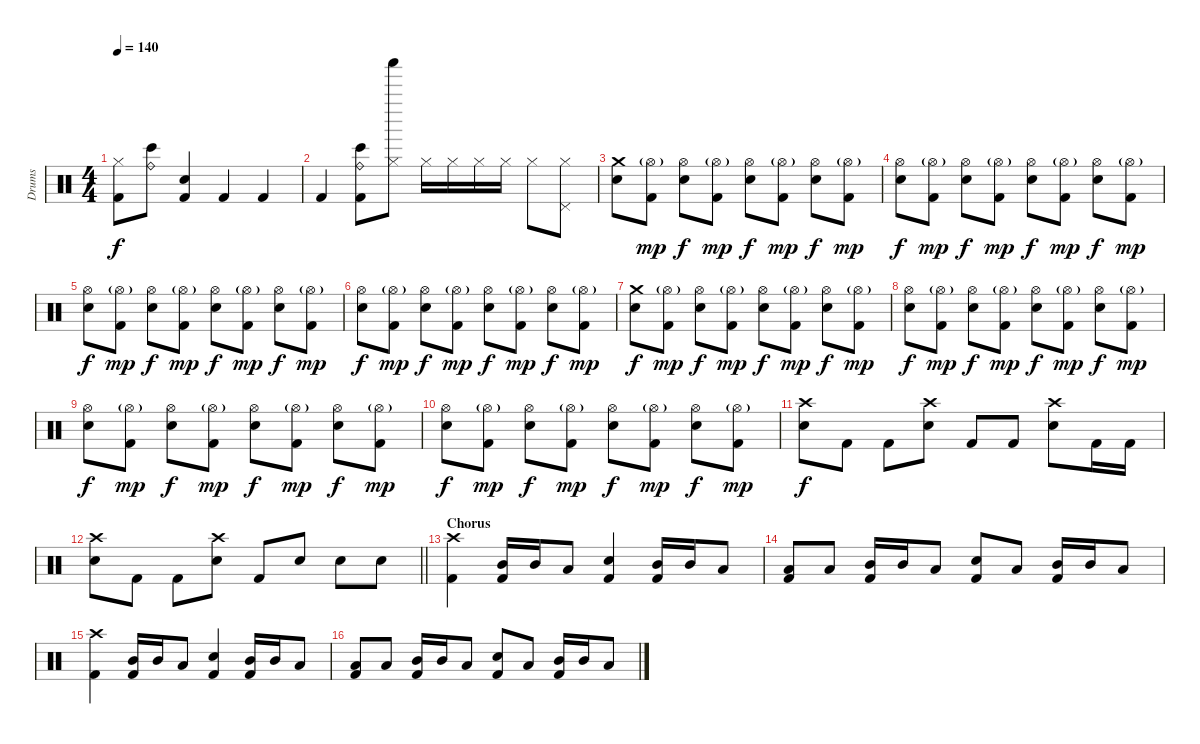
\track ("Drums" "Drums") {instrument percussion}
\staff {score}
\articulation defaults
\ts (4 4)
\tempo 140
\clef neutral
\ks c
("Hi-Hat (closed)" "Kick (hit) 2").8{dy f} ("Ride (bell)" "Bongo High (hit)").8 ("Snare (hit) 2" "Kick (hit) 2").4 "Kick (hit) 2".4 "Kick (hit) 2".4 |
"Kick (hit) 2".4 ("Ride (bell)" "Bongo High (hit)" "Kick (hit) 2").8 ("Shaker (hit)" "Hi-Hat (closed)").8 "Hi-Hat (closed)".16 "Hi-Hat (closed)".16 "Hi-Hat (closed)".16 "Hi-Hat (closed)".16 "Hi-Hat (closed)".8 ("Hi-Hat (closed)" "Pedal Hi-Hat (hit)").8 |
("Crash medium (hit)" "Snare (hit) 2").8 ("Hi-Hat (open)"{g} "Kick (hit) 2").8{dy mp} ("Hi-Hat (open)" "Snare (hit) 2").8{dy f} ("Hi-Hat (open)"{g} "Kick (hit) 2").8{dy mp} ("Hi-Hat (open)" "Snare (hit) 2").8{dy f} ("Hi-Hat (open)"{g} "Kick (hit) 2").8{dy mp} ("Hi-Hat (open)" "Snare (hit) 2").8{dy f} ("Hi-Hat (open)"{g} "Kick (hit) 2").8{dy mp} |
("Hi-Hat (open)" "Snare (hit) 2").8{dy f} ("Hi-Hat (open)"{g} "Kick (hit) 2").8{dy mp} ("Hi-Hat (open)" "Snare (hit) 2").8{dy f} ("Hi-Hat (open)"{g} "Kick (hit) 2").8{dy mp} ("Hi-Hat (open)" "Snare (hit) 2").8{dy f} ("Hi-Hat (open)"{g} "Kick (hit) 2").8{dy mp} ("Hi-Hat (open)" "Snare (hit) 2").8{dy f} ("Hi-Hat (open)"{g} "Kick (hit) 2").8{dy mp} |
("Hi-Hat (open)" "Snare (hit) 2").8{dy f} ("Hi-Hat (open)"{g} "Kick (hit) 2").8{dy mp} ("Hi-Hat (open)" "Snare (hit) 2").8{dy f} ("Hi-Hat (open)"{g} "Kick (hit) 2").8{dy mp} ("Hi-Hat (open)" "Snare (hit) 2").8{dy f} ("Hi-Hat (open)"{g} "Kick (hit) 2").8{dy mp} ("Hi-Hat (open)" "Snare (hit) 2").8{dy f} ("Hi-Hat (open)"{g} "Kick (hit) 2").8{dy mp} |
("Hi-Hat (open)" "Snare (hit) 2").8{dy f} ("Hi-Hat (open)"{g} "Kick (hit) 2").8{dy mp} ("Hi-Hat (open)" "Snare (hit) 2").8{dy f} ("Hi-Hat (open)"{g} "Kick (hit) 2").8{dy mp} ("Hi-Hat (open)" "Snare (hit) 2").8{dy f} ("Hi-Hat (open)"{g} "Kick (hit) 2").8{dy mp} ("Hi-Hat (open)" "Snare (hit) 2").8{dy f} ("Hi-Hat (open)"{g} "Kick (hit) 2").8{dy mp} |
("Crash medium (hit)" "Snare (hit) 2").8{dy f} ("Hi-Hat (open)"{g} "Kick (hit) 2").8{dy mp} ("Hi-Hat (open)" "Snare (hit) 2").8{dy f} ("Hi-Hat (open)"{g} "Kick (hit) 2").8{dy mp} ("Hi-Hat (open)" "Snare (hit) 2").8{dy f} ("Hi-Hat (open)"{g} "Kick (hit) 2").8{dy mp} ("Hi-Hat (open)" "Snare (hit) 2").8{dy f} ("Hi-Hat (open)"{g} "Kick (hit) 2").8{dy mp} |
("Hi-Hat (open)" "Snare (hit) 2").8{dy f} ("Hi-Hat (open)"{g} "Kick (hit) 2").8{dy mp} ("Hi-Hat (open)" "Snare (hit) 2").8{dy f} ("Hi-Hat (open)"{g} "Kick (hit) 2").8{dy mp} ("Hi-Hat (open)" "Snare (hit) 2").8{dy f} ("Hi-Hat (open)"{g} "Kick (hit) 2").8{dy mp} ("Hi-Hat (open)" "Snare (hit) 2").8{dy f} ("Hi-Hat (open)"{g} "Kick (hit) 2").8{dy mp} |
("Hi-Hat (open)" "Snare (hit) 2").8{dy f} ("Hi-Hat (open)"{g} "Kick (hit) 2").8{dy mp} ("Hi-Hat (open)" "Snare (hit) 2").8{dy f} ("Hi-Hat (open)"{g} "Kick (hit) 2").8{dy mp} ("Hi-Hat (open)" "Snare (hit) 2").8{dy f} ("Hi-Hat (open)"{g} "Kick (hit) 2").8{dy mp} ("Hi-Hat (open)" "Snare (hit) 2").8{dy f} ("Hi-Hat (open)"{g} "Kick (hit) 2").8{dy mp} |
("Hi-Hat (open)" "Snare (hit) 2").8{dy f} ("Hi-Hat (open)"{g} "Kick (hit) 2").8{dy mp} ("Hi-Hat (open)" "Snare (hit) 2").8{dy f} ("Hi-Hat (open)"{g} "Kick (hit) 2").8{dy mp} ("Hi-Hat (open)" "Snare (hit) 2").8{dy f} ("Hi-Hat (open)"{g} "Kick (hit) 2").8{dy mp} ("Hi-Hat (open)" "Snare (hit) 2").8{dy f} ("Hi-Hat (open)"{g} "Kick (hit) 2").8{dy mp} |
("Crash high (hit)" "Snare (hit) 2").8{dy f} "Kick (hit) 2".8 "Kick (hit) 2".8 ("Crash high (hit)" "Snare (hit) 2").8 "Kick (hit) 2".8 "Kick (hit) 2".8 ("Crash high (hit)" "Snare (hit) 2").8 "Kick (hit) 2".16 "Kick (hit) 2".16 |
\barLineRight lightlight
("Crash high (hit)" "Snare (hit) 2").8 "Kick (hit) 2".8 "Kick (hit) 2".8 ("Crash high (hit)" "Snare (hit) 2").8 "Kick (hit) 2".8 "Snare (hit) 2".8 "Snare (hit) 2".8 "Snare (hit) 2".8 |
\section ("" "Chorus")
("Crash high (hit)" "Kick (hit) 2").4 ("Mid Tom (hit)" "Kick (hit) 2").16 "Mid Tom (hit)".16 "Low Tom (hit)".8 ("Snare (hit) 2" "Kick (hit) 2").4 ("Mid Tom (hit)" "Kick (hit) 2").16 "Mid Tom (hit)".16 "Low Tom (hit)".8 |
("Low Tom (hit)" "Kick (hit) 2").8 "Low Tom (hit)".8 ("Mid Tom (hit)" "Kick (hit) 2").16 "Mid Tom (hit)".16 "Low Tom (hit)".8 ("Snare (hit) 2" "Kick (hit) 2").8 "Low Tom (hit)".8 ("Mid Tom (hit)" "Kick (hit) 2").16 "Mid Tom (hit)".16 "Low Tom (hit)".8 |
("Crash high (hit)" "Kick (hit) 2").4 ("Mid Tom (hit)" "Kick (hit) 2").16 "Mid Tom (hit)".16 "Low Tom (hit)".8 ("Snare (hit) 2" "Kick (hit) 2").4 ("Mid Tom (hit)" "Kick (hit) 2").16 "Mid Tom (hit)".16 "Low Tom (hit)".8 |
("Low Tom (hit)" "Kick (hit) 2").8 "Low Tom (hit)".8 ("Mid Tom (hit)" "Kick (hit) 2").16 "Mid Tom (hit)".16 "Low Tom (hit)".8 ("Snare (hit) 2" "Kick (hit) 2").8 "Low Tom (hit)".8 ("Mid Tom (hit)" "Kick (hit) 2").16 "Mid Tom (hit)".16 "Low Tom (hit)".8
